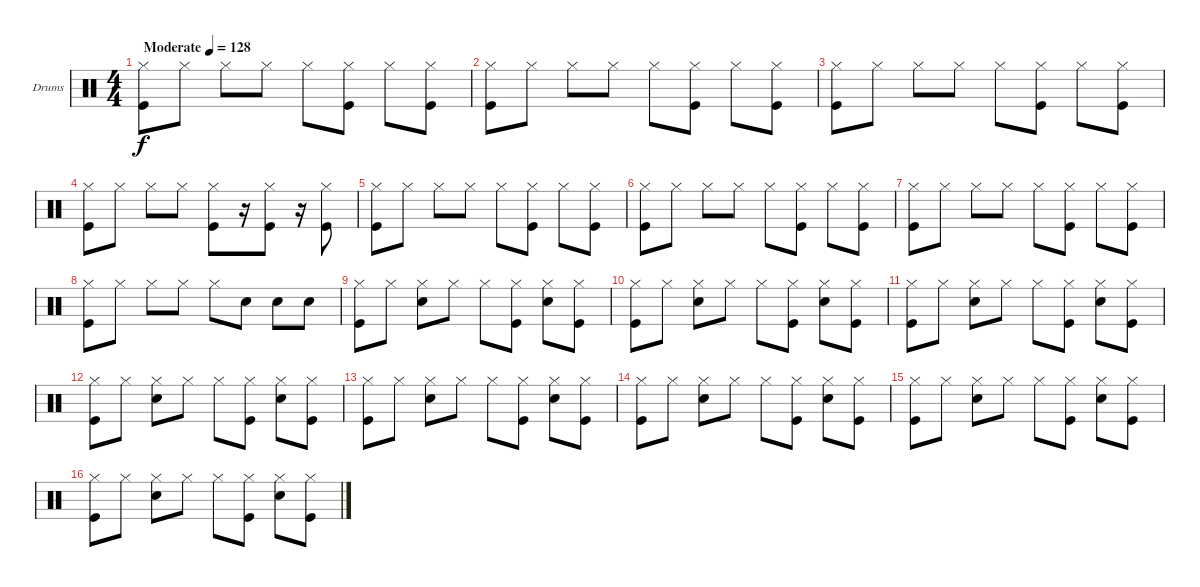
\bracketExtendMode groupsimilarinstruments
\firstSystemTrackNameOrientation horizontal
\otherSystemsTrackNameOrientation horizontal
\track ("Drumkit" "Drums") {instrument percussion}
\staff {score}
\articulation defaults
\ts (4 4)
\beaming (8 2 2 2 2)
\tempo (128 "Moderate")
\clef neutral
\ks c
("Kick (hit)" "Hi-Hat (closed)").8{dy f} "Hi-Hat (closed)".8 "Hi-Hat (closed)".8 "Hi-Hat (closed)".8 "Hi-Hat (closed)".8 ("Kick (hit)" "Hi-Hat (closed)").8 "Hi-Hat (closed)".8 ("Kick (hit)" "Hi-Hat (closed)").8 |
("Kick (hit)" "Hi-Hat (closed)").8 "Hi-Hat (closed)".8 "Hi-Hat (closed)".8 "Hi-Hat (closed)".8 "Hi-Hat (closed)".8 ("Kick (hit)" "Hi-Hat (closed)").8 "Hi-Hat (closed)".8 ("Kick (hit)" "Hi-Hat (closed)").8 |
("Kick (hit)" "Hi-Hat (closed)").8 "Hi-Hat (closed)".8 "Hi-Hat (closed)".8 "Hi-Hat (closed)".8 "Hi-Hat (closed)".8 ("Kick (hit)" "Hi-Hat (closed)").8 "Hi-Hat (closed)".8 ("Kick (hit)" "Hi-Hat (closed)").8 |
("Kick (hit)" "Hi-Hat (closed)").8 "Hi-Hat (closed)".8 "Hi-Hat (closed)".8 "Hi-Hat (closed)".8 ("Kick (hit)" "Hi-Hat (closed)").8 r.16 ("Kick (hit)" "Hi-Hat (closed)").8 r.16 ("Kick (hit)" "Hi-Hat (closed)").8 |
("Kick (hit)" "Hi-Hat (closed)").8 "Hi-Hat (closed)".8 "Hi-Hat (closed)".8 "Hi-Hat (closed)".8 "Hi-Hat (closed)".8 ("Kick (hit)" "Hi-Hat (closed)").8 "Hi-Hat (closed)".8 ("Kick (hit)" "Hi-Hat (closed)").8 |
("Kick (hit)" "Hi-Hat (closed)").8 "Hi-Hat (closed)".8 "Hi-Hat (closed)".8 "Hi-Hat (closed)".8 "Hi-Hat (closed)".8 ("Kick (hit)" "Hi-Hat (closed)").8 "Hi-Hat (closed)".8 ("Kick (hit)" "Hi-Hat (closed)").8 |
("Kick (hit)" "Hi-Hat (closed)").8 "Hi-Hat (closed)".8 "Hi-Hat (closed)".8 "Hi-Hat (closed)".8 "Hi-Hat (closed)".8 ("Kick (hit)" "Hi-Hat (closed)").8 "Hi-Hat (closed)".8 ("Kick (hit)" "Hi-Hat (closed)").8 |
("Kick (hit)" "Hi-Hat (closed)").8 "Hi-Hat (closed)".8 "Hi-Hat (closed)".8 "Hi-Hat (closed)".8 "Hi-Hat (closed)".8 "Snare (hit) 2".8 "Snare (hit) 2".8 "Snare (hit) 2".8 |
("Kick (hit)" "Hi-Hat (closed)").8 "Hi-Hat (closed)".8 ("Snare (hit) 2" "Hi-Hat (closed)").8 "Hi-Hat (closed)".8 "Hi-Hat (closed)".8 ("Kick (hit)" "Hi-Hat (closed)").8 ("Snare (hit) 2" "Hi-Hat (closed)").8 ("Kick (hit)" "Hi-Hat (closed)").8 |
("Kick (hit)" "Hi-Hat (closed)").8 "Hi-Hat (closed)".8 ("Snare (hit) 2" "Hi-Hat (closed)").8 "Hi-Hat (closed)".8 "Hi-Hat (closed)".8 ("Kick (hit)" "Hi-Hat (closed)").8 ("Snare (hit) 2" "Hi-Hat (closed)").8 ("Kick (hit)" "Hi-Hat (closed)").8 |
("Kick (hit)" "Hi-Hat (closed)").8 "Hi-Hat (closed)".8 ("Snare (hit) 2" "Hi-Hat (closed)").8 "Hi-Hat (closed)".8 "Hi-Hat (closed)".8 ("Kick (hit)" "Hi-Hat (closed)").8 ("Snare (hit) 2" "Hi-Hat (closed)").8 ("Kick (hit)" "Hi-Hat (closed)").8 |
("Kick (hit)" "Hi-Hat (closed)").8 "Hi-Hat (closed)".8 ("Snare (hit) 2" "Hi-Hat (closed)").8 "Hi-Hat (closed)".8 "Hi-Hat (closed)".8 ("Kick (hit)" "Hi-Hat (closed)").8 ("Snare (hit) 2" "Hi-Hat (closed)").8 ("Kick (hit)" "Hi-Hat (closed)").8 |
("Kick (hit)" "Hi-Hat (closed)").8 "Hi-Hat (closed)".8 ("Snare (hit) 2" "Hi-Hat (closed)").8 "Hi-Hat (closed)".8 "Hi-Hat (closed)".8 ("Kick (hit)" "Hi-Hat (closed)").8 ("Snare (hit) 2" "Hi-Hat (closed)").8 ("Kick (hit)" "Hi-Hat (closed)").8 |
("Kick (hit)" "Hi-Hat (closed)").8 "Hi-Hat (closed)".8 ("Snare (hit) 2" "Hi-Hat (closed)").8 "Hi-Hat (closed)".8 "Hi-Hat (closed)".8 ("Kick (hit)" "Hi-Hat (closed)").8 ("Snare (hit) 2" "Hi-Hat (closed)").8 ("Kick (hit)" "Hi-Hat (closed)").8 |
("Kick (hit)" "Hi-Hat (closed)").8 "Hi-Hat (closed)".8 ("Snare (hit) 2" "Hi-Hat (closed)").8 "Hi-Hat (closed)".8 "Hi-Hat (closed)".8 ("Kick (hit)" "Hi-Hat (closed)").8 ("Snare (hit) 2" "Hi-Hat (closed)").8 ("Kick (hit)" "Hi-Hat (closed)").8 |
("Kick (hit)" "Hi-Hat (closed)").8 "Hi-Hat (closed)".8 ("Snare (hit) 2" "Hi-Hat (closed)").8 "Hi-Hat (closed)".8 "Hi-Hat (closed)".8 ("Kick (hit)" "Hi-Hat (closed)").8 ("Snare (hit) 2" "Hi-Hat (closed)").8 ("Kick (hit)" "Hi-Hat (closed)").8
